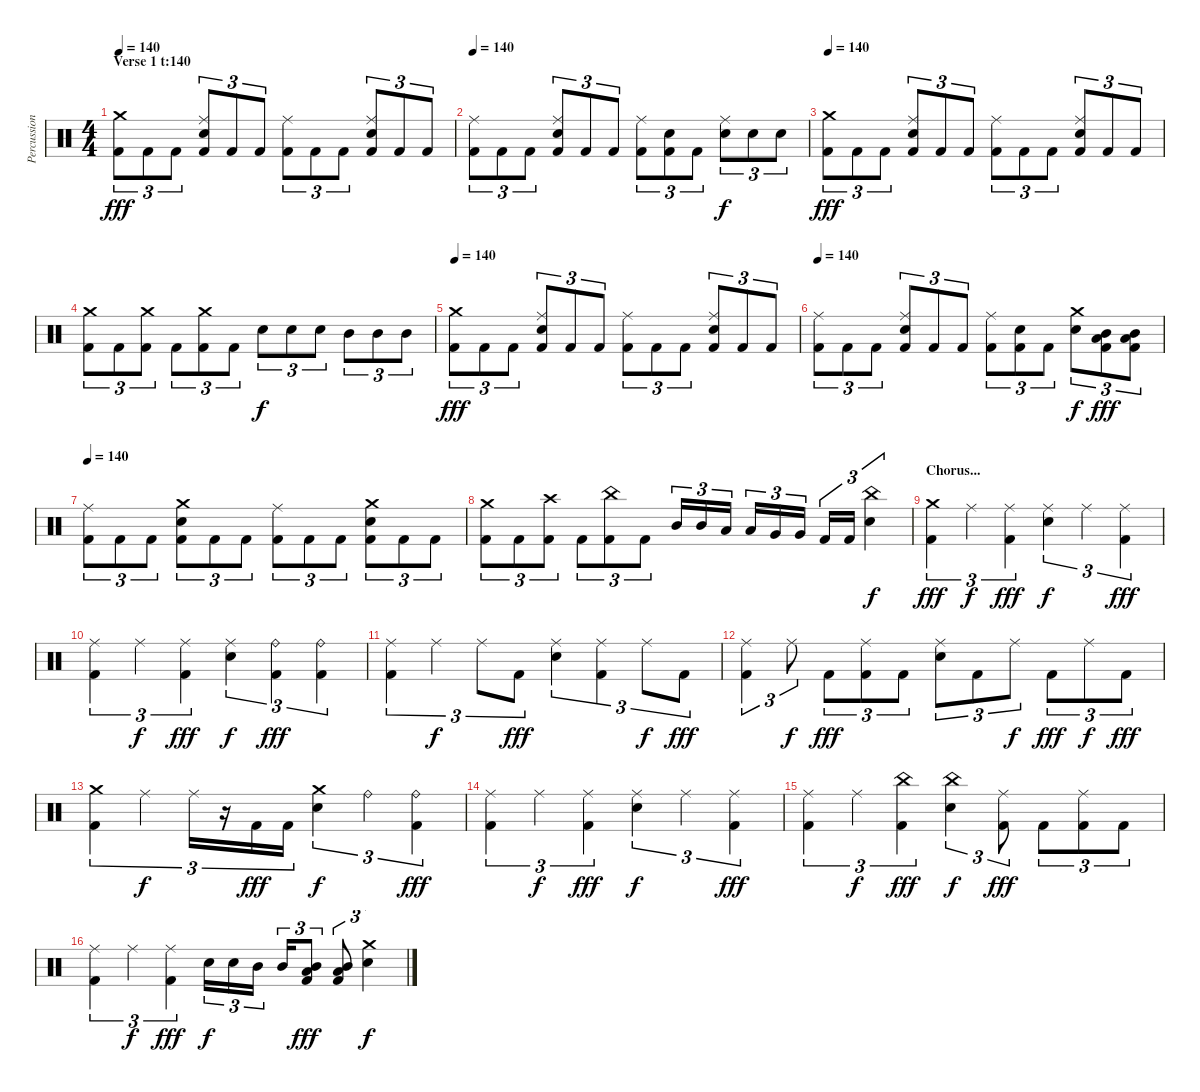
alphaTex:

\track ("Percussion" "Percussion") {instrument percussion}
\staff {score}
\articulation defaults
\ts (4 4)
\section ("" "Verse 1 t:140")
\tempo 140
\clef neutral
\ks c
("Crash medium (hit)" "Kick (hit) 2").8{tu (3 2) dy fff} "Kick (hit) 2".8{tu (3 2)} "Kick (hit) 2".8{tu (3 2)} ("Ride (middle)" "Electric Snare (hit)" "Kick (hit) 2").8{tu (3 2)} "Kick (hit) 2".8{tu (3 2)} "Kick (hit) 2".8{tu (3 2)} ("Ride (middle)" "Kick (hit) 2").8{tu (3 2)} "Kick (hit) 2".8{tu (3 2)} "Kick (hit) 2".8{tu (3 2)} ("Ride (middle)" "Electric Snare (hit)" "Kick (hit) 2").8{tu (3 2)} "Kick (hit) 2".8{tu (3 2)} "Kick (hit) 2".8{tu (3 2)} |
\tempo 140
("Ride (middle)" "Kick (hit) 2").8{tu (3 2)} "Kick (hit) 2".8{tu (3 2)} "Kick (hit) 2".8{tu (3 2)} ("Ride (middle)" "Electric Snare (hit)" "Kick (hit) 2").8{tu (3 2)} "Kick (hit) 2".8{tu (3 2)} "Kick (hit) 2".8{tu (3 2)} ("Ride (middle)" "Kick (hit) 2").8{tu (3 2)} ("Electric Snare (hit)" "Kick (hit) 2").8{tu (3 2)} "Kick (hit) 2".8{tu (3 2)} ("Ride (middle)" "Electric Snare (hit)").8{tu (3 2) dy f} "Electric Snare (hit)".8{tu (3 2)} "Electric Snare (hit)".8{tu (3 2)} |
\tempo 140
("Crash medium (hit)" "Kick (hit) 2").8{tu (3 2) dy fff} "Kick (hit) 2".8{tu (3 2)} "Kick (hit) 2".8{tu (3 2)} ("Ride (middle)" "Electric Snare (hit)" "Kick (hit) 2").8{tu (3 2)} "Kick (hit) 2".8{tu (3 2)} "Kick (hit) 2".8{tu (3 2)} ("Ride (middle)" "Kick (hit) 2").8{tu (3 2)} "Kick (hit) 2".8{tu (3 2)} "Kick (hit) 2".8{tu (3 2)} ("Ride (middle)" "Electric Snare (hit)" "Kick (hit) 2").8{tu (3 2)} "Kick (hit) 2".8{tu (3 2)} "Kick (hit) 2".8{tu (3 2)} |
("Crash medium (hit)" "Kick (hit) 2").8{tu (3 2)} "Kick (hit) 2".8{tu (3 2)} ("Crash medium (hit)" "Kick (hit) 2").8{tu (3 2)} "Kick (hit) 2".8{tu (3 2)} ("Crash medium (hit)" "Kick (hit) 2").8{tu (3 2)} "Kick (hit) 2".8{tu (3 2)} "Electric Snare (hit)".8{tu (3 2) dy f} "Electric Snare (hit)".8{tu (3 2)} "Electric Snare (hit)".8{tu (3 2)} "Mid Tom (hit)".8{tu (3 2)} "Mid Tom (hit)".8{tu (3 2)} "Mid Tom (hit)".8{tu (3 2)} |
\tempo 140
("Crash medium (hit)" "Kick (hit) 2").8{tu (3 2) dy fff} "Kick (hit) 2".8{tu (3 2)} "Kick (hit) 2".8{tu (3 2)} ("Ride (middle)" "Electric Snare (hit)" "Kick (hit) 2").8{tu (3 2)} "Kick (hit) 2".8{tu (3 2)} "Kick (hit) 2".8{tu (3 2)} ("Ride (middle)" "Kick (hit) 2").8{tu (3 2)} "Kick (hit) 2".8{tu (3 2)} "Kick (hit) 2".8{tu (3 2)} ("Ride (middle)" "Electric Snare (hit)" "Kick (hit) 2").8{tu (3 2)} "Kick (hit) 2".8{tu (3 2)} "Kick (hit) 2".8{tu (3 2)} |
\tempo 140
("Ride (middle)" "Kick (hit) 2").8{tu (3 2)} "Kick (hit) 2".8{tu (3 2)} "Kick (hit) 2".8{tu (3 2)} ("Ride (middle)" "Electric Snare (hit)" "Kick (hit) 2").8{tu (3 2)} "Kick (hit) 2".8{tu (3 2)} "Kick (hit) 2".8{tu (3 2)} ("Ride (middle)" "Kick (hit) 2").8{tu (3 2)} ("Electric Snare (hit)" "Kick (hit) 2").8{tu (3 2)} "Kick (hit) 2".8{tu (3 2)} ("Crash medium (hit)" "Electric Snare (hit)").8{tu (3 2) dy f} ("Mid Tom (hit)" "Low Tom (hit)" "Kick (hit) 2").8{tu (3 2) dy fff} ("Mid Tom (hit)" "Low Tom (hit)" "Kick (hit) 2").8{tu (3 2)} |
\tempo 140
("Ride (middle)" "Kick (hit) 2").8{tu (3 2)} "Kick (hit) 2".8{tu (3 2)} "Kick (hit) 2".8{tu (3 2)} ("Crash medium (hit)" "Electric Snare (hit)" "Kick (hit) 2").8{tu (3 2)} "Kick (hit) 2".8{tu (3 2)} "Kick (hit) 2".8{tu (3 2)} ("Ride (middle)" "Kick (hit) 2").8{tu (3 2)} "Kick (hit) 2".8{tu (3 2)} "Kick (hit) 2".8{tu (3 2)} ("Crash medium (hit)" "Electric Snare (hit)" "Kick (hit) 2").8{tu (3 2)} "Kick (hit) 2".8{tu (3 2)} "Kick (hit) 2".8{tu (3 2)} |
("Crash medium (hit)" "Kick (hit) 2").8{tu (3 2)} "Kick (hit) 2".8{tu (3 2)} ("Crash high (hit)" "Kick (hit) 2").8{tu (3 2)} "Kick (hit) 2".8{tu (3 2)} ("China (hit)" "Kick (hit) 2").8{tu (3 2)} "Kick (hit) 2".8{tu (3 2)} "Mid Tom (hit)".16{tu (3 2)} "Mid Tom (hit)".16{tu (3 2)} "Low Tom (hit)".16{tu (3 2)} "Low Tom (hit)".16{tu (3 2)} "Very Low Tom (hit)".16{tu (3 2)} "Very Low Tom (hit)".16{tu (3 2)} "Kick (hit) 2".16{tu (3 2)} "Kick (hit) 2".16{tu (3 2)} ("China (hit)" "Electric Snare (hit)").4{tu (3 2) dy f} |
\section ("" "Chorus...")
("Crash medium (hit)" "Kick (hit) 2").4{tu (3 2) dy fff} "Ride (middle)".4{tu (3 2) dy f} ("Ride (middle)" "Kick (hit) 2").4{tu (3 2) dy fff} ("Ride (middle)" "Electric Snare (hit)").4{tu (3 2) dy f} "Ride (middle)".4{tu (3 2)} ("Ride (middle)" "Kick (hit) 2").4{tu (3 2) dy fff} |
("Ride (middle)" "Kick (hit) 2").4{tu (3 2)} "Ride (middle)".4{tu (3 2) dy f} ("Ride (middle)" "Kick (hit) 2").4{tu (3 2) dy fff} ("Ride (middle)" "Electric Snare (hit)").4{tu (3 2) dy f} ("Ride (bell)" "Kick (hit) 2").4{tu (3 2) dy fff} ("Ride (bell)" "Kick (hit) 2").4{tu (3 2)} |
("Ride (middle)" "Kick (hit) 2").4{tu (3 2)} "Ride (middle)".4{tu (3 2) dy f} "Ride (middle)".8{tu (3 2)} "Kick (hit) 2".8{tu (3 2) dy fff} ("Ride (middle)" "Electric Snare (hit)").4{tu (3 2)} ("Ride (middle)" "Kick (hit) 2").4{tu (3 2)} "Ride (middle)".8{tu (3 2) dy f} "Kick (hit) 2".8{tu (3 2) dy fff} |
("Ride (middle)" "Kick (hit) 2").4{tu (3 2)} "Ride (middle)".8{tu (3 2) dy f} "Kick (hit) 2".8{tu (3 2) dy fff} ("Ride (middle)" "Kick (hit) 2").8{tu (3 2)} "Kick (hit) 2".8{tu (3 2)} ("Ride (middle)" "Electric Snare (hit)").8{tu (3 2)} "Kick (hit) 2".8{tu (3 2)} "Ride (middle)".8{tu (3 2) dy f} "Kick (hit) 2".8{tu (3 2) dy fff} "Ride (middle)".8{tu (3 2) dy f} "Kick (hit) 2".8{tu (3 2) dy fff} |
("Crash medium (hit)" "Kick (hit) 2").4{tu (3 2)} "Ride (middle)".4{tu (3 2) dy f} "Ride (middle)".16{tu (3 2)} r.16{tu (3 2)} "Kick (hit) 2".16{tu (3 2) dy fff} "Kick (hit) 2".16{tu (3 2)} ("Crash medium (hit)" "Electric Snare (hit)").4{tu (3 2) dy f} "Ride (bell)".4{tu (3 2)} ("Ride (bell)" "Kick (hit) 2").4{tu (3 2) dy fff} |
("Ride (middle)" "Kick (hit) 2").4{tu (3 2)} "Ride (middle)".4{tu (3 2) dy f} ("Ride (middle)" "Kick (hit) 2").4{tu (3 2) dy fff} ("Ride (middle)" "Electric Snare (hit)").4{tu (3 2) dy f} "Ride (middle)".4{tu (3 2)} ("Ride (middle)" "Kick (hit) 2").4{tu (3 2) dy fff} |
("Ride (middle)" "Kick (hit) 2").4{tu (3 2)} "Ride (middle)".4{tu (3 2) dy f} ("China (hit)" "Kick (hit) 2").4{tu (3 2) dy fff} ("China (hit)" "Electric Snare (hit)").4{tu (3 2) dy f} ("Ride (middle)" "Kick (hit) 2").8{tu (3 2) dy fff} "Kick (hit) 2".8{tu (3 2)} ("Ride (middle)" "Kick (hit) 2").8{tu (3 2)} "Kick (hit) 2".8{tu (3 2)} |
("Ride (middle)" "Kick (hit) 2").4{tu (3 2)} "Ride (middle)".4{tu (3 2) dy f} ("Ride (middle)" "Kick (hit) 2").4{tu (3 2) dy fff} "Electric Snare (hit)".16{tu (3 2) dy f} "Electric Snare (hit)".16{tu (3 2)} "Mid Tom (hit)".16{tu (3 2)} "Mid Tom (hit)".16{tu (3 2)} ("Low Tom (hit)" "Mid Tom (hit)" "Kick (hit) 2").8{tu (3 2) dy fff} ("Mid Tom (hit)" "Low Tom (hit)" "Kick (hit) 2").8{tu (3 2)} ("Crash medium (hit)" "Electric Snare (hit)").4{tu (3 2) dy f}
